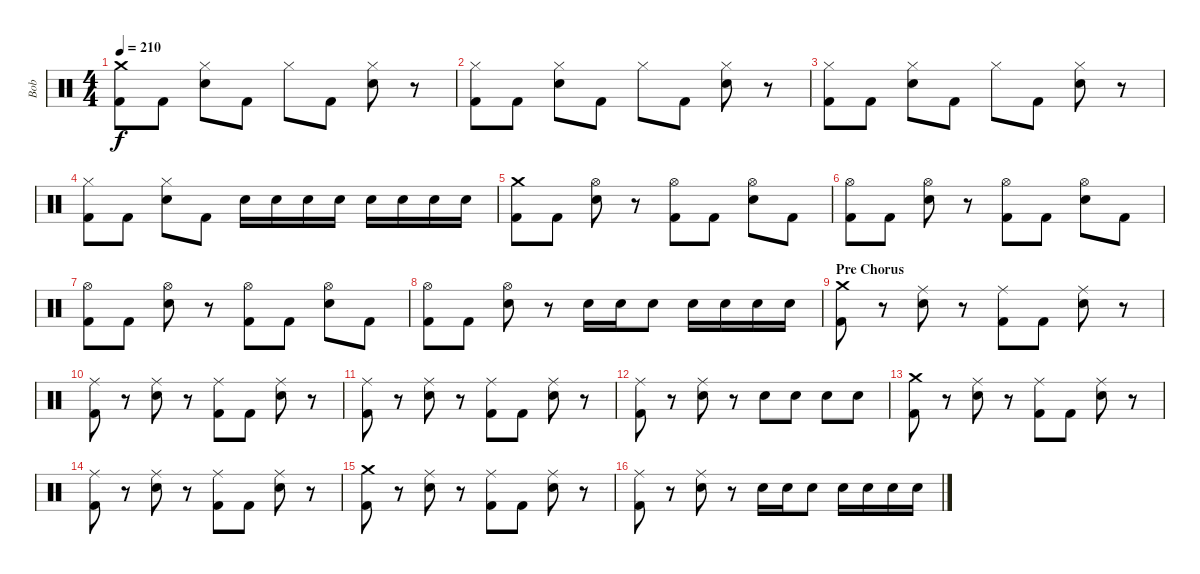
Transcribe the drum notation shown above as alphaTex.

\track ("Bob" "Bob") {instrument percussion}
\staff {score}
\articulation defaults
\ts (4 4)
\tempo 210
\clef neutral
\ks c
("Crash medium (hit)" "Kick (hit) 2").8{dy f} "Kick (hit) 2".8 ("Hi-Hat (closed)" "Electric Snare (hit)").8 "Kick (hit) 2".8 "Hi-Hat (closed)".8 "Kick (hit) 2".8 ("Hi-Hat (closed)" "Electric Snare (hit)").8 r.8 |
("Hi-Hat (closed)" "Kick (hit) 2").8 "Kick (hit) 2".8 ("Hi-Hat (closed)" "Electric Snare (hit)").8 "Kick (hit) 2".8 "Hi-Hat (closed)".8 "Kick (hit) 2".8 ("Hi-Hat (closed)" "Electric Snare (hit)").8 r.8 |
("Hi-Hat (closed)" "Kick (hit) 2").8 "Kick (hit) 2".8 ("Hi-Hat (closed)" "Electric Snare (hit)").8 "Kick (hit) 2".8 "Hi-Hat (closed)".8 "Kick (hit) 2".8 ("Hi-Hat (closed)" "Electric Snare (hit)").8 r.8 |
("Hi-Hat (closed)" "Kick (hit) 2").8 "Kick (hit) 2".8 ("Hi-Hat (closed)" "Electric Snare (hit)").8 "Kick (hit) 2".8 "Electric Snare (hit)".16 "Electric Snare (hit)".16 "Electric Snare (hit)".16 "Electric Snare (hit)".16 "Electric Snare (hit)".16 "Electric Snare (hit)".16 "Electric Snare (hit)".16 "Electric Snare (hit)".16 |
("Crash medium (hit)" "Kick (hit) 2").8 "Kick (hit) 2".8 ("Hi-Hat (open)" "Electric Snare (hit)").8 r.8 ("Hi-Hat (open)" "Kick (hit) 2").8 "Kick (hit) 2".8 ("Hi-Hat (open)" "Electric Snare (hit)").8 "Kick (hit) 2".8 |
("Hi-Hat (open)" "Kick (hit) 2").8 "Kick (hit) 2".8 ("Hi-Hat (open)" "Electric Snare (hit)").8 r.8 ("Hi-Hat (open)" "Kick (hit) 2").8 "Kick (hit) 2".8 ("Hi-Hat (open)" "Electric Snare (hit)").8 "Kick (hit) 2".8 |
("Hi-Hat (open)" "Kick (hit) 2").8 "Kick (hit) 2".8 ("Hi-Hat (open)" "Electric Snare (hit)").8 r.8 ("Hi-Hat (open)" "Kick (hit) 2").8 "Kick (hit) 2".8 ("Hi-Hat (open)" "Electric Snare (hit)").8 "Kick (hit) 2".8 |
("Hi-Hat (open)" "Kick (hit) 2").8 "Kick (hit) 2".8 ("Hi-Hat (open)" "Electric Snare (hit)").8 r.8 "Electric Snare (hit)".16 "Electric Snare (hit)".16 "Electric Snare (hit)".8 "Electric Snare (hit)".16 "Electric Snare (hit)".16 "Electric Snare (hit)".16 "Electric Snare (hit)".16 |
\section ("" "Pre Chorus")
("Crash medium (hit)" "Kick (hit) 2").8 r.8 ("Ride (middle)" "Electric Snare (hit)").8 r.8 ("Ride (middle)" "Kick (hit) 2").8 "Kick (hit) 2".8 ("Ride (middle)" "Electric Snare (hit)").8 r.8 |
("Ride (middle)" "Kick (hit) 2").8 r.8 ("Ride (middle)" "Electric Snare (hit)").8 r.8 ("Ride (middle)" "Kick (hit) 2").8 "Kick (hit) 2".8 ("Ride (middle)" "Electric Snare (hit)").8 r.8 |
("Ride (middle)" "Kick (hit) 2").8 r.8 ("Ride (middle)" "Electric Snare (hit)").8 r.8 ("Ride (middle)" "Kick (hit) 2").8 "Kick (hit) 2".8 ("Ride (middle)" "Electric Snare (hit)").8 r.8 |
("Ride (middle)" "Kick (hit) 2").8 r.8 ("Ride (middle)" "Electric Snare (hit)").8 r.8 "Electric Snare (hit)".8 "Electric Snare (hit)".8 "Electric Snare (hit)".8 "Electric Snare (hit)".8 |
("Crash medium (hit)" "Kick (hit) 2").8 r.8 ("Ride (middle)" "Electric Snare (hit)").8 r.8 ("Ride (middle)" "Kick (hit) 2").8 "Kick (hit) 2".8 ("Ride (middle)" "Electric Snare (hit)").8 r.8 |
("Ride (middle)" "Kick (hit) 2").8 r.8 ("Ride (middle)" "Electric Snare (hit)").8 r.8 ("Ride (middle)" "Kick (hit) 2").8 "Kick (hit) 2".8 ("Ride (middle)" "Electric Snare (hit)").8 r.8 |
("Crash medium (hit)" "Kick (hit) 2").8 r.8 ("Ride (middle)" "Electric Snare (hit)").8 r.8 ("Ride (middle)" "Kick (hit) 2").8 "Kick (hit) 2".8 ("Ride (middle)" "Electric Snare (hit)").8 r.8 |
("Ride (middle)" "Kick (hit) 2").8 r.8 ("Ride (middle)" "Electric Snare (hit)").8 r.8 "Electric Snare (hit)".16 "Electric Snare (hit)".16 "Electric Snare (hit)".8 "Electric Snare (hit)".16 "Electric Snare (hit)".16 "Electric Snare (hit)".16 "Electric Snare (hit)".16
